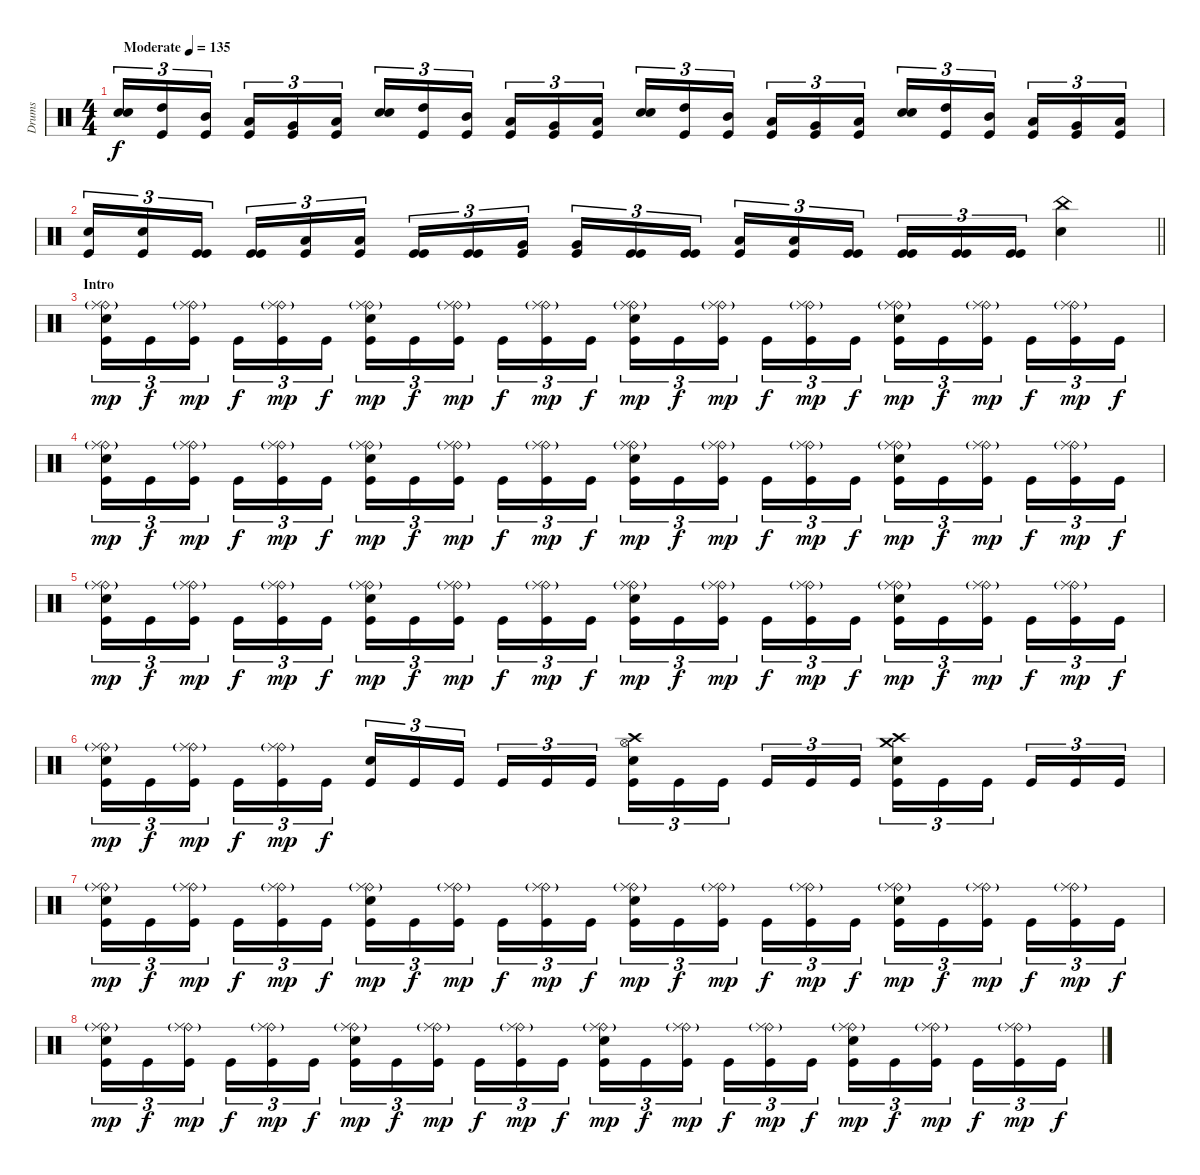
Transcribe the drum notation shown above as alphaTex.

\track ("Drums" "Drums") {instrument percussion}
\staff {score}
\articulation defaults
\ts (4 4)
\tempo (135 "Moderate")
\clef neutral
\ks c
("Electric Snare (hit)" "Electric Snare (hit)").16{tu (3 2) dy f} ("Kick (hit)" "High Tom (hit)").16{tu (3 2)} ("Kick (hit)" "Mid Tom (hit)").16{tu (3 2) beam splitsecondary} ("Kick (hit)" "Low Tom (hit)").16{tu (3 2)} ("Kick (hit)" "Very Low Tom (hit)").16{tu (3 2)} ("Kick (hit)" "Low Floor Tom (hit)").16{tu (3 2)} ("Electric Snare (hit)" "Electric Snare (hit)").16{tu (3 2)} ("Kick (hit)" "High Tom (hit)").16{tu (3 2)} ("Kick (hit)" "Mid Tom (hit)").16{tu (3 2) beam splitsecondary} ("Kick (hit)" "Low Tom (hit)").16{tu (3 2)} ("Kick (hit)" "Very Low Tom (hit)").16{tu (3 2)} ("Kick (hit)" "Low Floor Tom (hit)").16{tu (3 2)} ("Electric Snare (hit)" "Electric Snare (hit)").16{tu (3 2)} ("Kick (hit)" "High Tom (hit)").16{tu (3 2)} ("Kick (hit)" "Mid Tom (hit)").16{tu (3 2) beam splitsecondary} ("Kick (hit)" "Low Tom (hit)").16{tu (3 2)} ("Kick (hit)" "Very Low Tom (hit)").16{tu (3 2)} ("Kick (hit)" "Low Floor Tom (hit)").16{tu (3 2)} ("Electric Snare (hit)" "Electric Snare (hit)").16{tu (3 2)} ("Kick (hit)" "High Tom (hit)").16{tu (3 2)} ("Kick (hit)" "Mid Tom (hit)").16{tu (3 2) beam splitsecondary} ("Kick (hit)" "Low Tom (hit)").16{tu (3 2)} ("Kick (hit)" "Very Low Tom (hit)").16{tu (3 2)} ("Kick (hit)" "Low Floor Tom (hit)").16{tu (3 2)} |
\barLineRight lightlight
("Electric Snare (hit)" "Kick (hit)").16{tu (3 2)} ("Electric Snare (hit)" "Kick (hit)").16{tu (3 2)} ("Kick (hit)" "Kick (hit)").16{tu (3 2) beam splitsecondary} ("Kick (hit)" "Kick (hit)").16{tu (3 2)} ("Low Tom (hit)" "Kick (hit)").16{tu (3 2)} ("Low Tom (hit)" "Kick (hit)").16{tu (3 2)} ("Kick (hit)" "Kick (hit)").16{tu (3 2)} ("Kick (hit)" "Kick (hit)").16{tu (3 2)} ("Very Low Tom (hit)" "Kick (hit)").16{tu (3 2) beam splitsecondary} ("Very Low Tom (hit)" "Kick (hit)").16{tu (3 2)} ("Kick (hit)" "Kick (hit)").16{tu (3 2)} ("Kick (hit)" "Kick (hit)").16{tu (3 2)} ("Low Floor Tom (hit)" "Kick (hit)").16{tu (3 2)} ("Low Floor Tom (hit)" "Kick (hit)").16{tu (3 2)} ("Kick (hit)" "Kick (hit)").16{tu (3 2) beam splitsecondary} ("Kick (hit)" "Kick (hit)").16{tu (3 2)} ("Kick (hit)" "Kick (hit)").16{tu (3 2)} ("Kick (hit)" "Kick (hit)").16{tu (3 2)} ("China (hit)" "Electric Snare (hit)").4 |
\section ("" "Intro")
("Ride (bell)" "Ride (middle)"{g} "Electric Snare (hit)" "Kick (hit)").16{tu (3 2) dy mp} "Kick (hit)".16{tu (3 2) dy f} ("Ride (bell)" "Ride (middle)"{g} "Kick (hit)").16{tu (3 2) dy mp beam splitsecondary} "Kick (hit)".16{tu (3 2) dy f} ("Ride (bell)" "Ride (middle)"{g} "Kick (hit)").16{tu (3 2) dy mp} "Kick (hit)".16{tu (3 2) dy f} ("Ride (bell)" "Ride (middle)"{g} "Electric Snare (hit)" "Kick (hit)").16{tu (3 2) dy mp} "Kick (hit)".16{tu (3 2) dy f} ("Ride (bell)" "Ride (middle)"{g} "Kick (hit)").16{tu (3 2) dy mp beam splitsecondary} "Kick (hit)".16{tu (3 2) dy f} ("Ride (bell)" "Ride (middle)"{g} "Kick (hit)").16{tu (3 2) dy mp} "Kick (hit)".16{tu (3 2) dy f} ("Ride (bell)" "Ride (middle)"{g} "Electric Snare (hit)" "Kick (hit)").16{tu (3 2) dy mp} "Kick (hit)".16{tu (3 2) dy f} ("Ride (bell)" "Ride (middle)"{g} "Kick (hit)").16{tu (3 2) dy mp beam splitsecondary} "Kick (hit)".16{tu (3 2) dy f} ("Ride (bell)" "Ride (middle)"{g} "Kick (hit)").16{tu (3 2) dy mp} "Kick (hit)".16{tu (3 2) dy f} ("Ride (bell)" "Ride (middle)"{g} "Electric Snare (hit)" "Kick (hit)").16{tu (3 2) dy mp} "Kick (hit)".16{tu (3 2) dy f} ("Ride (bell)" "Ride (middle)"{g} "Kick (hit)").16{tu (3 2) dy mp beam splitsecondary} "Kick (hit)".16{tu (3 2) dy f} ("Ride (bell)" "Ride (middle)"{g} "Kick (hit)").16{tu (3 2) dy mp} "Kick (hit)".16{tu (3 2) dy f} |
("Ride (bell)" "Ride (middle)"{g} "Electric Snare (hit)" "Kick (hit)").16{tu (3 2) dy mp} "Kick (hit)".16{tu (3 2) dy f} ("Ride (bell)" "Ride (middle)"{g} "Kick (hit)").16{tu (3 2) dy mp beam splitsecondary} "Kick (hit)".16{tu (3 2) dy f} ("Ride (bell)" "Ride (middle)"{g} "Kick (hit)").16{tu (3 2) dy mp} "Kick (hit)".16{tu (3 2) dy f} ("Ride (bell)" "Ride (middle)"{g} "Electric Snare (hit)" "Kick (hit)").16{tu (3 2) dy mp} "Kick (hit)".16{tu (3 2) dy f} ("Ride (bell)" "Ride (middle)"{g} "Kick (hit)").16{tu (3 2) dy mp beam splitsecondary} "Kick (hit)".16{tu (3 2) dy f} ("Ride (bell)" "Ride (middle)"{g} "Kick (hit)").16{tu (3 2) dy mp} "Kick (hit)".16{tu (3 2) dy f} ("Ride (bell)" "Ride (middle)"{g} "Electric Snare (hit)" "Kick (hit)").16{tu (3 2) dy mp} "Kick (hit)".16{tu (3 2) dy f} ("Ride (bell)" "Ride (middle)"{g} "Kick (hit)").16{tu (3 2) dy mp beam splitsecondary} "Kick (hit)".16{tu (3 2) dy f} ("Ride (bell)" "Ride (middle)"{g} "Kick (hit)").16{tu (3 2) dy mp} "Kick (hit)".16{tu (3 2) dy f} ("Ride (bell)" "Ride (middle)"{g} "Electric Snare (hit)" "Kick (hit)").16{tu (3 2) dy mp} "Kick (hit)".16{tu (3 2) dy f} ("Ride (bell)" "Ride (middle)"{g} "Kick (hit)").16{tu (3 2) dy mp beam splitsecondary} "Kick (hit)".16{tu (3 2) dy f} ("Ride (bell)" "Ride (middle)"{g} "Kick (hit)").16{tu (3 2) dy mp} "Kick (hit)".16{tu (3 2) dy f} |
("Ride (bell)" "Ride (middle)"{g} "Electric Snare (hit)" "Kick (hit)").16{tu (3 2) dy mp} "Kick (hit)".16{tu (3 2) dy f} ("Ride (bell)" "Ride (middle)"{g} "Kick (hit)").16{tu (3 2) dy mp beam splitsecondary} "Kick (hit)".16{tu (3 2) dy f} ("Ride (bell)" "Ride (middle)"{g} "Kick (hit)").16{tu (3 2) dy mp} "Kick (hit)".16{tu (3 2) dy f} ("Ride (bell)" "Ride (middle)"{g} "Electric Snare (hit)" "Kick (hit)").16{tu (3 2) dy mp} "Kick (hit)".16{tu (3 2) dy f} ("Ride (bell)" "Ride (middle)"{g} "Kick (hit)").16{tu (3 2) dy mp beam splitsecondary} "Kick (hit)".16{tu (3 2) dy f} ("Ride (bell)" "Ride (middle)"{g} "Kick (hit)").16{tu (3 2) dy mp} "Kick (hit)".16{tu (3 2) dy f} ("Ride (bell)" "Ride (middle)"{g} "Electric Snare (hit)" "Kick (hit)").16{tu (3 2) dy mp} "Kick (hit)".16{tu (3 2) dy f} ("Ride (bell)" "Ride (middle)"{g} "Kick (hit)").16{tu (3 2) dy mp beam splitsecondary} "Kick (hit)".16{tu (3 2) dy f} ("Ride (bell)" "Ride (middle)"{g} "Kick (hit)").16{tu (3 2) dy mp} "Kick (hit)".16{tu (3 2) dy f} ("Ride (bell)" "Ride (middle)"{g} "Electric Snare (hit)" "Kick (hit)").16{tu (3 2) dy mp} "Kick (hit)".16{tu (3 2) dy f} ("Ride (bell)" "Ride (middle)"{g} "Kick (hit)").16{tu (3 2) dy mp beam splitsecondary} "Kick (hit)".16{tu (3 2) dy f} ("Ride (bell)" "Ride (middle)"{g} "Kick (hit)").16{tu (3 2) dy mp} "Kick (hit)".16{tu (3 2) dy f} |
("Ride (bell)" "Ride (middle)"{g} "Electric Snare (hit)" "Kick (hit)").16{tu (3 2) dy mp} "Kick (hit)".16{tu (3 2) dy f} ("Ride (bell)" "Ride (middle)"{g} "Kick (hit)").16{tu (3 2) dy mp beam splitsecondary} "Kick (hit)".16{tu (3 2) dy f} ("Ride (bell)" "Ride (middle)"{g} "Kick (hit)").16{tu (3 2) dy mp} "Kick (hit)".16{tu (3 2) dy f} ("Electric Snare (hit)" "Kick (hit)").16{tu (3 2)} "Kick (hit)".16{tu (3 2)} "Kick (hit)".16{tu (3 2) beam splitsecondary} "Kick (hit)".16{tu (3 2)} "Kick (hit)".16{tu (3 2)} "Kick (hit)".16{tu (3 2)} ("Hi-Hat (open)" "Crash high (hit)" "Electric Snare (hit)" "Kick (hit)").16{tu (3 2)} "Kick (hit)".16{tu (3 2)} "Kick (hit)".16{tu (3 2) beam splitsecondary} "Kick (hit)".16{tu (3 2)} "Kick (hit)".16{tu (3 2)} "Kick (hit)".16{tu (3 2)} ("Crash medium (hit)" "Crash high (hit)" "Electric Snare (hit)" "Kick (hit)").16{tu (3 2)} "Kick (hit)".16{tu (3 2)} "Kick (hit)".16{tu (3 2) beam splitsecondary} "Kick (hit)".16{tu (3 2)} "Kick (hit)".16{tu (3 2)} "Kick (hit)".16{tu (3 2)} |
("Ride (bell)" "Ride (middle)"{g} "Electric Snare (hit)" "Kick (hit)").16{tu (3 2) dy mp} "Kick (hit)".16{tu (3 2) dy f} ("Ride (bell)" "Ride (middle)"{g} "Kick (hit)").16{tu (3 2) dy mp beam splitsecondary} "Kick (hit)".16{tu (3 2) dy f} ("Ride (bell)" "Ride (middle)"{g} "Kick (hit)").16{tu (3 2) dy mp} "Kick (hit)".16{tu (3 2) dy f} ("Ride (bell)" "Ride (middle)"{g} "Electric Snare (hit)" "Kick (hit)").16{tu (3 2) dy mp} "Kick (hit)".16{tu (3 2) dy f} ("Ride (bell)" "Ride (middle)"{g} "Kick (hit)").16{tu (3 2) dy mp beam splitsecondary} "Kick (hit)".16{tu (3 2) dy f} ("Ride (bell)" "Ride (middle)"{g} "Kick (hit)").16{tu (3 2) dy mp} "Kick (hit)".16{tu (3 2) dy f} ("Ride (bell)" "Ride (middle)"{g} "Electric Snare (hit)" "Kick (hit)").16{tu (3 2) dy mp} "Kick (hit)".16{tu (3 2) dy f} ("Ride (bell)" "Ride (middle)"{g} "Kick (hit)").16{tu (3 2) dy mp beam splitsecondary} "Kick (hit)".16{tu (3 2) dy f} ("Ride (bell)" "Ride (middle)"{g} "Kick (hit)").16{tu (3 2) dy mp} "Kick (hit)".16{tu (3 2) dy f} ("Ride (bell)" "Ride (middle)"{g} "Electric Snare (hit)" "Kick (hit)").16{tu (3 2) dy mp} "Kick (hit)".16{tu (3 2) dy f} ("Ride (bell)" "Ride (middle)"{g} "Kick (hit)").16{tu (3 2) dy mp beam splitsecondary} "Kick (hit)".16{tu (3 2) dy f} ("Ride (bell)" "Ride (middle)"{g} "Kick (hit)").16{tu (3 2) dy mp} "Kick (hit)".16{tu (3 2) dy f} |
("Ride (bell)" "Ride (middle)"{g} "Electric Snare (hit)" "Kick (hit)").16{tu (3 2) dy mp} "Kick (hit)".16{tu (3 2) dy f} ("Ride (bell)" "Ride (middle)"{g} "Kick (hit)").16{tu (3 2) dy mp beam splitsecondary} "Kick (hit)".16{tu (3 2) dy f} ("Ride (bell)" "Ride (middle)"{g} "Kick (hit)").16{tu (3 2) dy mp} "Kick (hit)".16{tu (3 2) dy f} ("Ride (bell)" "Ride (middle)"{g} "Electric Snare (hit)" "Kick (hit)").16{tu (3 2) dy mp} "Kick (hit)".16{tu (3 2) dy f} ("Ride (bell)" "Ride (middle)"{g} "Kick (hit)").16{tu (3 2) dy mp beam splitsecondary} "Kick (hit)".16{tu (3 2) dy f} ("Ride (bell)" "Ride (middle)"{g} "Kick (hit)").16{tu (3 2) dy mp} "Kick (hit)".16{tu (3 2) dy f} ("Ride (bell)" "Ride (middle)"{g} "Electric Snare (hit)" "Kick (hit)").16{tu (3 2) dy mp} "Kick (hit)".16{tu (3 2) dy f} ("Ride (bell)" "Ride (middle)"{g} "Kick (hit)").16{tu (3 2) dy mp beam splitsecondary} "Kick (hit)".16{tu (3 2) dy f} ("Ride (bell)" "Ride (middle)"{g} "Kick (hit)").16{tu (3 2) dy mp} "Kick (hit)".16{tu (3 2) dy f} ("Ride (bell)" "Ride (middle)"{g} "Electric Snare (hit)" "Kick (hit)").16{tu (3 2) dy mp} "Kick (hit)".16{tu (3 2) dy f} ("Ride (bell)" "Ride (middle)"{g} "Kick (hit)").16{tu (3 2) dy mp beam splitsecondary} "Kick (hit)".16{tu (3 2) dy f} ("Ride (bell)" "Ride (middle)"{g} "Kick (hit)").16{tu (3 2) dy mp} "Kick (hit)".16{tu (3 2) dy f}
